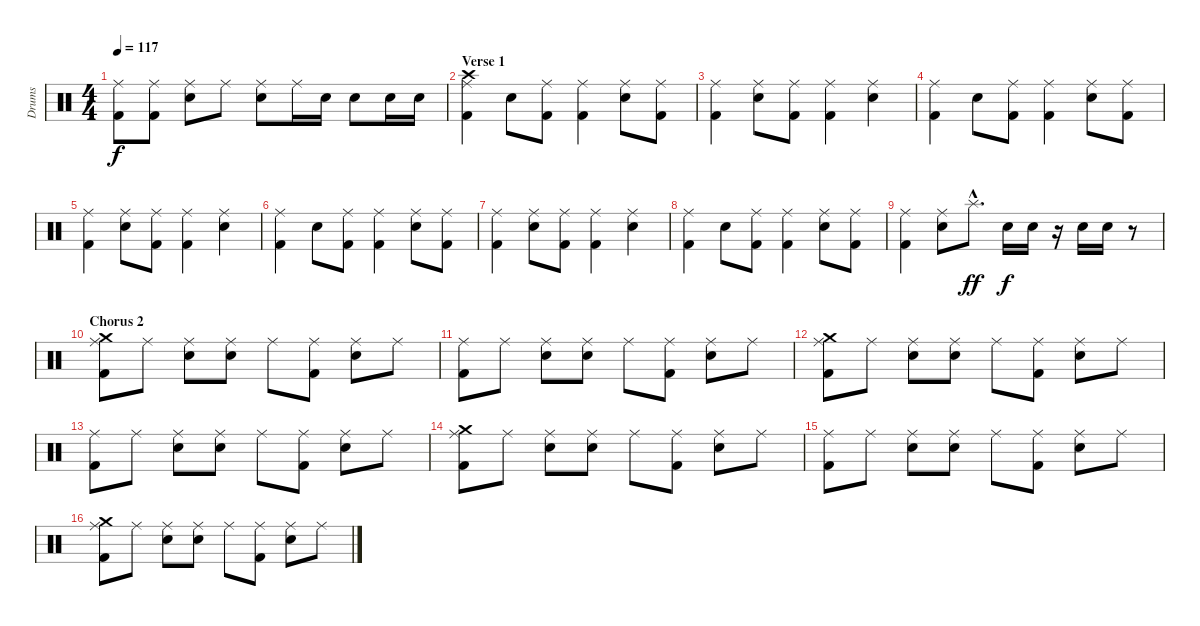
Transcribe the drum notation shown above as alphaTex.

\track ("Drums" "Drums") {instrument percussion}
\staff {score}
\articulation defaults
\ts (4 4)
\tempo 117
\clef neutral
\ks c
("Ride (middle)" "Kick (hit) 2").8{dy f} ("Ride (middle)" "Kick (hit) 2").8 ("Ride (middle)" "Electric Snare (hit)").8 "Ride (middle)".8 ("Ride (middle)" "Electric Snare (hit)").8 "Ride (middle)".16 "Electric Snare (hit)".16 "Electric Snare (hit)".8 "Electric Snare (hit)".16 "Electric Snare (hit)".16 |
\section ("" "Verse 1")
("Ride (middle)" "Crash high (hit)" "Kick (hit) 2").4 "Electric Snare (hit)".8 ("Ride (middle)" "Kick (hit) 2").8 ("Ride (middle)" "Kick (hit) 2").4 ("Ride (middle)" "Electric Snare (hit)").8 ("Ride (middle)" "Kick (hit) 2").8 |
("Ride (middle)" "Kick (hit) 2").4 ("Ride (middle)" "Electric Snare (hit)").8 ("Ride (middle)" "Kick (hit) 2").8 ("Ride (middle)" "Kick (hit) 2").4 ("Ride (middle)" "Electric Snare (hit)").4 |
("Ride (middle)" "Kick (hit) 2").4 "Electric Snare (hit)".8 ("Ride (middle)" "Kick (hit) 2").8 ("Ride (middle)" "Kick (hit) 2").4 ("Ride (middle)" "Electric Snare (hit)").8 ("Ride (middle)" "Kick (hit) 2").8 |
("Ride (middle)" "Kick (hit) 2").4 ("Ride (middle)" "Electric Snare (hit)").8 ("Ride (middle)" "Kick (hit) 2").8 ("Ride (middle)" "Kick (hit) 2").4 ("Ride (middle)" "Electric Snare (hit)").4 |
("Ride (middle)" "Kick (hit) 2").4 "Electric Snare (hit)".8 ("Ride (middle)" "Kick (hit) 2").8 ("Ride (middle)" "Kick (hit) 2").4 ("Ride (middle)" "Electric Snare (hit)").8 ("Ride (middle)" "Kick (hit) 2").8 |
("Ride (middle)" "Kick (hit) 2").4 ("Ride (middle)" "Electric Snare (hit)").8 ("Ride (middle)" "Kick (hit) 2").8 ("Ride (middle)" "Kick (hit) 2").4 ("Ride (middle)" "Electric Snare (hit)").4 |
("Ride (middle)" "Kick (hit) 2").4 "Electric Snare (hit)".8 ("Ride (middle)" "Kick (hit) 2").8 ("Ride (middle)" "Kick (hit) 2").4 ("Ride (middle)" "Electric Snare (hit)").8 ("Ride (middle)" "Kick (hit) 2").8 |
("Ride (middle)" "Kick (hit) 2").4 ("Ride (middle)" "Electric Snare (hit)").8 "Splash (hit)"{hac}.8{d dy ff} "Electric Snare (hit)".16{dy f} "Electric Snare (hit)".16 r.16 "Electric Snare (hit)".16 "Electric Snare (hit)".16 r.8 |
\section ("" "Chorus 2")
("Ride (middle)" "Crash medium (hit)" "Kick (hit) 2").8 "Ride (middle)".8 ("Ride (middle)" "Electric Snare (hit)").8 ("Ride (middle)" "Electric Snare (hit)").8 "Ride (middle)".8 ("Ride (middle)" "Kick (hit) 2").8 ("Ride (middle)" "Electric Snare (hit)").8 "Ride (middle)".8 |
("Ride (middle)" "Kick (hit) 2").8 "Ride (middle)".8 ("Ride (middle)" "Electric Snare (hit)").8 ("Ride (middle)" "Electric Snare (hit)").8 "Ride (middle)".8 ("Ride (middle)" "Kick (hit) 2").8 ("Ride (middle)" "Electric Snare (hit)").8 "Ride (middle)".8 |
("Ride (middle)" "Crash medium (hit)" "Kick (hit) 2").8 "Ride (middle)".8 ("Ride (middle)" "Electric Snare (hit)").8 ("Ride (middle)" "Electric Snare (hit)").8 "Ride (middle)".8 ("Ride (middle)" "Kick (hit) 2").8 ("Ride (middle)" "Electric Snare (hit)").8 "Ride (middle)".8 |
("Ride (middle)" "Kick (hit) 2").8 "Ride (middle)".8 ("Ride (middle)" "Electric Snare (hit)").8 ("Ride (middle)" "Electric Snare (hit)").8 "Ride (middle)".8 ("Ride (middle)" "Kick (hit) 2").8 ("Ride (middle)" "Electric Snare (hit)").8 "Ride (middle)".8 |
("Ride (middle)" "Crash medium (hit)" "Kick (hit) 2").8 "Ride (middle)".8 ("Ride (middle)" "Electric Snare (hit)").8 ("Ride (middle)" "Electric Snare (hit)").8 "Ride (middle)".8 ("Ride (middle)" "Kick (hit) 2").8 ("Ride (middle)" "Electric Snare (hit)").8 "Ride (middle)".8 |
("Ride (middle)" "Kick (hit) 2").8 "Ride (middle)".8 ("Ride (middle)" "Electric Snare (hit)").8 ("Ride (middle)" "Electric Snare (hit)").8 "Ride (middle)".8 ("Ride (middle)" "Kick (hit) 2").8 ("Ride (middle)" "Electric Snare (hit)").8 "Ride (middle)".8 |
("Ride (middle)" "Crash medium (hit)" "Kick (hit) 2").8 "Ride (middle)".8 ("Ride (middle)" "Electric Snare (hit)").8 ("Ride (middle)" "Electric Snare (hit)").8 "Ride (middle)".8 ("Ride (middle)" "Kick (hit) 2").8 ("Ride (middle)" "Electric Snare (hit)").8 "Ride (middle)".8
